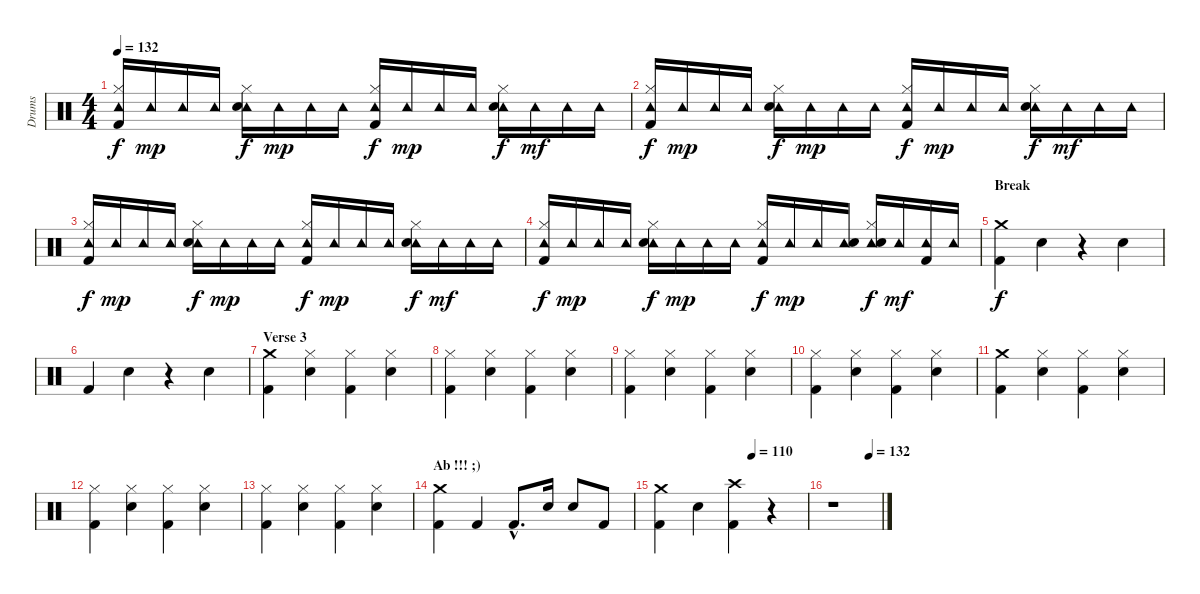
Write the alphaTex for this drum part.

\track ("Drums" "Drums") {instrument percussion}
\staff {score}
\articulation defaults
\ts (4 4)
\tempo 132
\clef neutral
\ks c
("Tambourine (hit)" "Hi-Hat (closed)" "Kick (hit) 2").16{dy f} "Tambourine (hit)".16{dy mp} "Tambourine (hit)".16 "Tambourine (hit)".16 ("Tambourine (hit)" "Hi-Hat (closed)" "Snare (hit) 2").16{dy f} "Tambourine (hit)".16{dy mp} "Tambourine (hit)".16 "Tambourine (hit)".16 ("Tambourine (hit)" "Hi-Hat (closed)" "Kick (hit) 2").16{dy f} "Tambourine (hit)".16{dy mp} "Tambourine (hit)".16 "Tambourine (hit)".16 ("Tambourine (hit)" "Hi-Hat (closed)" "Snare (hit) 2").16{dy f} "Tambourine (hit)".16{dy mf} "Tambourine (hit)".16 "Tambourine (hit)".16 |
("Tambourine (hit)" "Hi-Hat (closed)" "Kick (hit) 2").16{dy f} "Tambourine (hit)".16{dy mp} "Tambourine (hit)".16 "Tambourine (hit)".16 ("Tambourine (hit)" "Hi-Hat (closed)" "Snare (hit) 2").16{dy f} "Tambourine (hit)".16{dy mp} "Tambourine (hit)".16 "Tambourine (hit)".16 ("Tambourine (hit)" "Hi-Hat (closed)" "Kick (hit) 2").16{dy f} "Tambourine (hit)".16{dy mp} "Tambourine (hit)".16 "Tambourine (hit)".16 ("Tambourine (hit)" "Hi-Hat (closed)" "Snare (hit) 2").16{dy f} "Tambourine (hit)".16{dy mf} "Tambourine (hit)".16 "Tambourine (hit)".16 |
("Tambourine (hit)" "Hi-Hat (closed)" "Kick (hit) 2").16{dy f} "Tambourine (hit)".16{dy mp} "Tambourine (hit)".16 "Tambourine (hit)".16 ("Tambourine (hit)" "Hi-Hat (closed)" "Snare (hit) 2").16{dy f} "Tambourine (hit)".16{dy mp} "Tambourine (hit)".16 "Tambourine (hit)".16 ("Tambourine (hit)" "Hi-Hat (closed)" "Kick (hit) 2").16{dy f} "Tambourine (hit)".16{dy mp} "Tambourine (hit)".16 "Tambourine (hit)".16 ("Tambourine (hit)" "Hi-Hat (closed)" "Snare (hit) 2").16{dy f} "Tambourine (hit)".16{dy mf} "Tambourine (hit)".16 "Tambourine (hit)".16 |
("Tambourine (hit)" "Hi-Hat (closed)" "Kick (hit) 2").16{dy f} "Tambourine (hit)".16{dy mp} "Tambourine (hit)".16 "Tambourine (hit)".16 ("Tambourine (hit)" "Hi-Hat (closed)" "Snare (hit) 2").16{dy f} "Tambourine (hit)".16{dy mp} "Tambourine (hit)".16 "Tambourine (hit)".16 ("Tambourine (hit)" "Hi-Hat (closed)" "Kick (hit) 2").16{dy f} "Tambourine (hit)".16{dy mp} "Tambourine (hit)".16 ("Tambourine (hit)" "Snare (hit) 2").16 ("Tambourine (hit)" "Hi-Hat (closed)" "Snare (hit) 2").16{dy f} "Tambourine (hit)".16{dy mf} ("Tambourine (hit)" "Kick (hit) 2").16 "Tambourine (hit)".16 |
\section ("" "Break")
("Crash medium (hit)" "Kick (hit) 2").4{dy f} "Electric Snare (hit)".4 r.4 "Electric Snare (hit)".4 |
"Kick (hit) 2".4 "Electric Snare (hit)".4 r.4 "Electric Snare (hit)".4 |
\section ("" "Verse 3")
("Crash medium (hit)" "Kick (hit) 2").4 ("Hi-Hat (closed)" "Electric Snare (hit)").4 ("Hi-Hat (closed)" "Kick (hit) 2").4 ("Hi-Hat (closed)" "Electric Snare (hit)").4 |
("Hi-Hat (closed)" "Kick (hit) 2").4 ("Hi-Hat (closed)" "Electric Snare (hit)").4 ("Hi-Hat (closed)" "Kick (hit) 2").4 ("Hi-Hat (closed)" "Electric Snare (hit)").4 |
("Hi-Hat (closed)" "Kick (hit) 2").4 ("Hi-Hat (closed)" "Electric Snare (hit)").4 ("Hi-Hat (closed)" "Kick (hit) 2").4 ("Hi-Hat (closed)" "Electric Snare (hit)").4 |
("Hi-Hat (closed)" "Kick (hit) 2").4 ("Hi-Hat (closed)" "Electric Snare (hit)").4 ("Hi-Hat (closed)" "Kick (hit) 2").4 ("Hi-Hat (closed)" "Electric Snare (hit)").4 |
("Crash medium (hit)" "Kick (hit) 2").4 ("Hi-Hat (closed)" "Electric Snare (hit)").4 ("Hi-Hat (closed)" "Kick (hit) 2").4 ("Hi-Hat (closed)" "Electric Snare (hit)").4 |
("Hi-Hat (closed)" "Kick (hit) 2").4 ("Hi-Hat (closed)" "Electric Snare (hit)").4 ("Hi-Hat (closed)" "Kick (hit) 2").4 ("Hi-Hat (closed)" "Electric Snare (hit)").4 |
("Hi-Hat (closed)" "Kick (hit) 2").4 ("Hi-Hat (closed)" "Electric Snare (hit)").4 ("Hi-Hat (closed)" "Kick (hit) 2").4 ("Hi-Hat (closed)" "Electric Snare (hit)").4 |
\section ("" "Ab !!! ;)")
("Crash medium (hit)" "Kick (hit) 2").4 "Kick (hit) 2".4 "Kick (hit) 2"{hac}.8{d} "Electric Snare (hit)".16 "Electric Snare (hit)".8 "Kick (hit) 2".8 |
\tempo (110 0.625)
("Crash medium (hit)" "Kick (hit) 2").4 "Electric Snare (hit)".4 ("Crash high (hit)" "Kick (hit) 2").4 r.4 |
\tempo (132 0.75)
r.1
